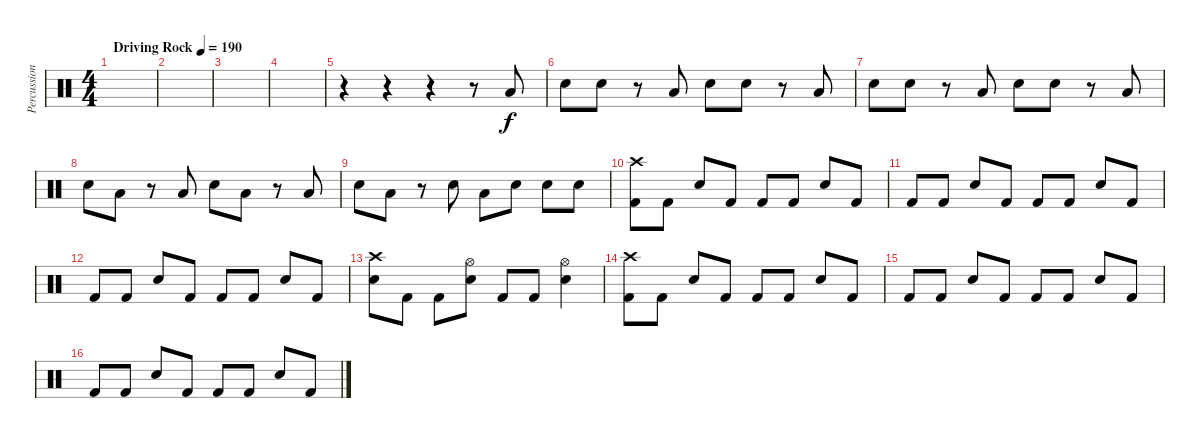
\track ("Percussion" "Percussion") {instrument percussion}
\staff {score}
\articulation defaults
\ts (4 4)
\tempo (190 "Driving Rock")
\clef neutral
\ks c
|
|
|
|
r.4 r.4 r.4 r.8 "Low Tom (hit)".8 |
"Snare (hit) 2".8 "Snare (hit) 2".8 r.8 "Low Tom (hit)".8 "Snare (hit) 2".8 "Snare (hit) 2".8 r.8 "Low Tom (hit)".8 |
"Snare (hit) 2".8 "Snare (hit) 2".8 r.8 "Low Tom (hit)".8 "Snare (hit) 2".8 "Snare (hit) 2".8 r.8 "Low Tom (hit)".8 |
"Snare (hit) 2".8 "Low Tom (hit)".8 r.8 "Low Tom (hit)".8 "Snare (hit) 2".8 "Low Tom (hit)".8 r.8 "Low Tom (hit)".8 |
"Snare (hit) 2".8 "Low Tom (hit)".8 r.8 "Snare (hit) 2".8 "Low Tom (hit)".8 "Snare (hit) 2".8 "Snare (hit) 2".8 "Snare (hit) 2".8 |
("Crash high (hit)" "Kick (hit) 2").8 "Kick (hit) 2".8 "Snare (hit) 2".8 "Kick (hit) 2".8 "Kick (hit) 2".8 "Kick (hit) 2".8 "Snare (hit) 2".8 "Kick (hit) 2".8 |
"Kick (hit) 2".8 "Kick (hit) 2".8 "Snare (hit) 2".8 "Kick (hit) 2".8 "Kick (hit) 2".8 "Kick (hit) 2".8 "Snare (hit) 2".8 "Kick (hit) 2".8 |
"Kick (hit) 2".8 "Kick (hit) 2".8 "Snare (hit) 2".8 "Kick (hit) 2".8 "Kick (hit) 2".8 "Kick (hit) 2".8 "Snare (hit) 2".8 "Kick (hit) 2".8 |
("Crash high (hit)" "Snare (hit) 2").8 "Kick (hit) 2".8 "Kick (hit) 2".8 ("Hi-Hat (open)" "Snare (hit) 2").8 "Kick (hit) 2".8 "Kick (hit) 2".8 ("Hi-Hat (open)" "Snare (hit) 2").4 |
("Crash high (hit)" "Kick (hit) 2").8 "Kick (hit) 2".8 "Snare (hit) 2".8 "Kick (hit) 2".8 "Kick (hit) 2".8 "Kick (hit) 2".8 "Snare (hit) 2".8 "Kick (hit) 2".8 |
"Kick (hit) 2".8 "Kick (hit) 2".8 "Snare (hit) 2".8 "Kick (hit) 2".8 "Kick (hit) 2".8 "Kick (hit) 2".8 "Snare (hit) 2".8 "Kick (hit) 2".8 |
"Kick (hit) 2".8 "Kick (hit) 2".8 "Snare (hit) 2".8 "Kick (hit) 2".8 "Kick (hit) 2".8 "Kick (hit) 2".8 "Snare (hit) 2".8 "Kick (hit) 2".8
